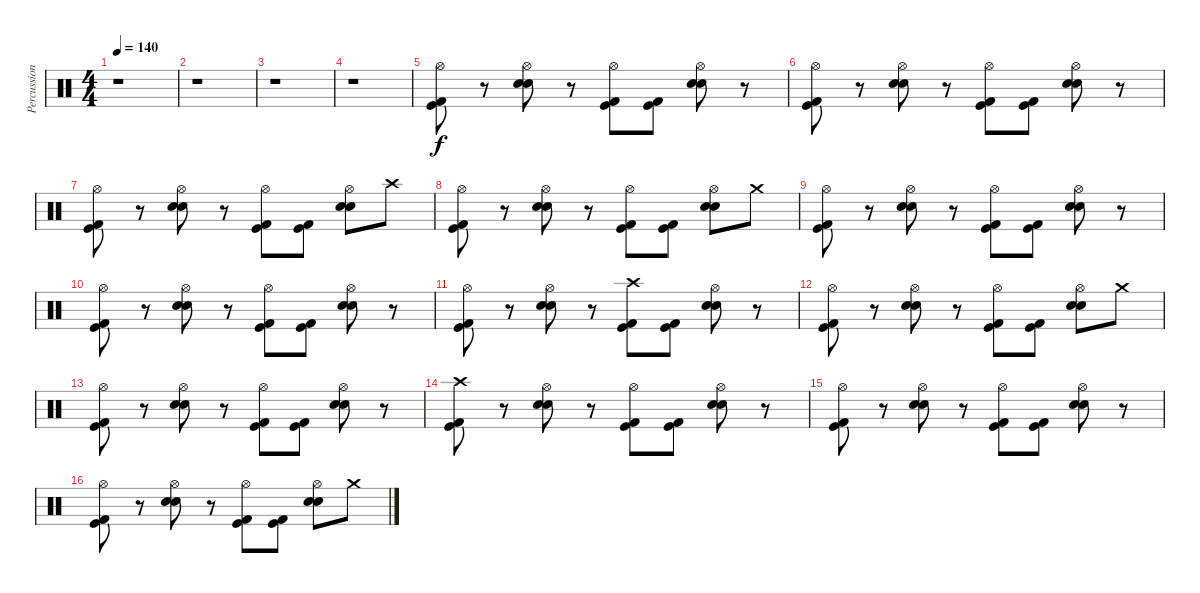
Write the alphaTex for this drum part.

\track ("Percussions" "Percussion") {instrument percussion}
\staff {score}
\articulation defaults
\ts (4 4)
\tempo 140
\clef neutral
\ks c
r.1{dy f} |
r.1 |
r.1 |
r.1 |
("Hi-Hat (open)" "Kick (hit)" "Kick (hit) 2").8 r.8 ("Hi-Hat (open)" "Snare (hit) 2" "Electric Snare (hit)").8 r.8 ("Hi-Hat (open)" "Kick (hit)" "Kick (hit) 2").8 ("Kick (hit)" "Kick (hit) 2").8 ("Hi-Hat (open)" "Snare (hit) 2" "Electric Snare (hit)").8 r.8 |
("Hi-Hat (open)" "Kick (hit)" "Kick (hit) 2").8 r.8 ("Hi-Hat (open)" "Snare (hit) 2" "Electric Snare (hit)").8 r.8 ("Hi-Hat (open)" "Kick (hit)" "Kick (hit) 2").8 ("Kick (hit)" "Kick (hit) 2").8 ("Hi-Hat (open)" "Snare (hit) 2" "Electric Snare (hit)").8 r.8 |
("Hi-Hat (open)" "Kick (hit)" "Kick (hit) 2").8 r.8 ("Hi-Hat (open)" "Snare (hit) 2" "Electric Snare (hit)").8 r.8 ("Hi-Hat (open)" "Kick (hit)" "Kick (hit) 2").8 ("Kick (hit)" "Kick (hit) 2").8 ("Hi-Hat (open)" "Snare (hit) 2" "Electric Snare (hit)").8 "Crash high (hit)".8 |
("Hi-Hat (open)" "Kick (hit)" "Kick (hit) 2").8 r.8 ("Hi-Hat (open)" "Snare (hit) 2" "Electric Snare (hit)").8 r.8 ("Hi-Hat (open)" "Kick (hit)" "Kick (hit) 2").8 ("Kick (hit)" "Kick (hit) 2").8 ("Hi-Hat (open)" "Snare (hit) 2" "Electric Snare (hit)").8 "Crash medium (hit)".8 |
("Hi-Hat (open)" "Kick (hit)" "Kick (hit) 2").8 r.8 ("Hi-Hat (open)" "Snare (hit) 2" "Electric Snare (hit)").8 r.8 ("Hi-Hat (open)" "Kick (hit)" "Kick (hit) 2").8 ("Kick (hit)" "Kick (hit) 2").8 ("Hi-Hat (open)" "Snare (hit) 2" "Electric Snare (hit)").8 r.8 |
("Hi-Hat (open)" "Kick (hit)" "Kick (hit) 2").8 r.8 ("Hi-Hat (open)" "Snare (hit) 2" "Electric Snare (hit)").8 r.8 ("Hi-Hat (open)" "Kick (hit)" "Kick (hit) 2").8 ("Kick (hit)" "Kick (hit) 2").8 ("Hi-Hat (open)" "Snare (hit) 2" "Electric Snare (hit)").8 r.8 |
("Hi-Hat (open)" "Kick (hit)" "Kick (hit) 2").8 r.8 ("Hi-Hat (open)" "Snare (hit) 2" "Electric Snare (hit)").8 r.8 ("Crash high (hit)" "Kick (hit)" "Kick (hit) 2").8 ("Kick (hit)" "Kick (hit) 2").8 ("Hi-Hat (open)" "Snare (hit) 2" "Electric Snare (hit)").8 r.8 |
("Hi-Hat (open)" "Kick (hit)" "Kick (hit) 2").8 r.8 ("Hi-Hat (open)" "Snare (hit) 2" "Electric Snare (hit)").8 r.8 ("Hi-Hat (open)" "Kick (hit)" "Kick (hit) 2").8 ("Kick (hit)" "Kick (hit) 2").8 ("Hi-Hat (open)" "Snare (hit) 2" "Electric Snare (hit)").8 "Crash medium (hit)".8 |
("Hi-Hat (open)" "Kick (hit)" "Kick (hit) 2").8 r.8 ("Hi-Hat (open)" "Snare (hit) 2" "Electric Snare (hit)").8 r.8 ("Hi-Hat (open)" "Kick (hit)" "Kick (hit) 2").8 ("Kick (hit)" "Kick (hit) 2").8 ("Hi-Hat (open)" "Snare (hit) 2" "Electric Snare (hit)").8 r.8 |
("Crash high (hit)" "Kick (hit)" "Kick (hit) 2").8 r.8 ("Hi-Hat (open)" "Snare (hit) 2" "Electric Snare (hit)").8 r.8 ("Hi-Hat (open)" "Kick (hit)" "Kick (hit) 2").8 ("Kick (hit)" "Kick (hit) 2").8 ("Hi-Hat (open)" "Snare (hit) 2" "Electric Snare (hit)").8 r.8 |
("Hi-Hat (open)" "Kick (hit)" "Kick (hit) 2").8 r.8 ("Hi-Hat (open)" "Snare (hit) 2" "Electric Snare (hit)").8 r.8 ("Hi-Hat (open)" "Kick (hit)" "Kick (hit) 2").8 ("Kick (hit)" "Kick (hit) 2").8 ("Hi-Hat (open)" "Snare (hit) 2" "Electric Snare (hit)").8 r.8 |
("Hi-Hat (open)" "Kick (hit)" "Kick (hit) 2").8 r.8 ("Hi-Hat (open)" "Snare (hit) 2" "Electric Snare (hit)").8 r.8 ("Hi-Hat (open)" "Kick (hit)" "Kick (hit) 2").8 ("Kick (hit)" "Kick (hit) 2").8 ("Hi-Hat (open)" "Snare (hit) 2" "Electric Snare (hit)").8 "Crash medium (hit)".8
